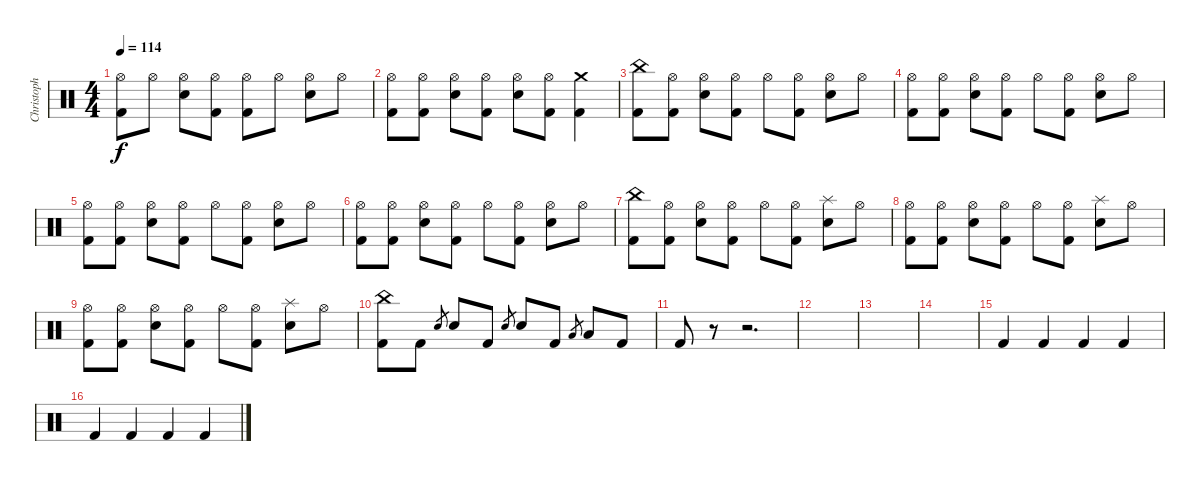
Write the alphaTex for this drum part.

\track ("Christoph" "Christoph") {instrument percussion}
\staff {score}
\articulation defaults
\ts (4 4)
\tempo 114
\clef neutral
\ks c
("Hi-Hat (open)" "Kick (hit) 2").8{dy f} "Hi-Hat (open)".8 ("Hi-Hat (open)" "Electric Snare (hit)").8 ("Hi-Hat (open)" "Kick (hit) 2").8 ("Hi-Hat (open)" "Kick (hit) 2").8 "Hi-Hat (open)".8 ("Hi-Hat (open)" "Electric Snare (hit)").8 "Hi-Hat (open)".8 |
("Hi-Hat (open)" "Kick (hit) 2").8 ("Hi-Hat (open)" "Kick (hit) 2").8 ("Hi-Hat (open)" "Electric Snare (hit)").8 ("Hi-Hat (open)" "Kick (hit) 2").8 ("Hi-Hat (open)" "Electric Snare (hit)").8 ("Hi-Hat (open)" "Kick (hit) 2").8 ("Crash medium (hit)" "Kick (hit) 2").4 |
("China (hit)" "Kick (hit) 2").8 ("Hi-Hat (open)" "Kick (hit) 2").8 ("Hi-Hat (open)" "Electric Snare (hit)").8 ("Hi-Hat (open)" "Kick (hit) 2").8 "Hi-Hat (open)".8 ("Hi-Hat (open)" "Kick (hit) 2").8 ("Hi-Hat (open)" "Electric Snare (hit)").8 "Hi-Hat (open)".8 |
("Hi-Hat (open)" "Kick (hit) 2").8 ("Hi-Hat (open)" "Kick (hit) 2").8 ("Hi-Hat (open)" "Electric Snare (hit)").8 ("Hi-Hat (open)" "Kick (hit) 2").8 "Hi-Hat (open)".8 ("Hi-Hat (open)" "Kick (hit) 2").8 ("Hi-Hat (open)" "Electric Snare (hit)").8 "Hi-Hat (open)".8 |
("Hi-Hat (open)" "Kick (hit) 2").8 ("Hi-Hat (open)" "Kick (hit) 2").8 ("Hi-Hat (open)" "Electric Snare (hit)").8 ("Hi-Hat (open)" "Kick (hit) 2").8 "Hi-Hat (open)".8 ("Hi-Hat (open)" "Kick (hit) 2").8 ("Hi-Hat (open)" "Electric Snare (hit)").8 "Hi-Hat (open)".8 |
("Hi-Hat (open)" "Kick (hit) 2").8 ("Hi-Hat (open)" "Kick (hit) 2").8 ("Hi-Hat (open)" "Electric Snare (hit)").8 ("Hi-Hat (open)" "Kick (hit) 2").8 "Hi-Hat (open)".8 ("Hi-Hat (open)" "Kick (hit) 2").8 ("Hi-Hat (open)" "Electric Snare (hit)").8 "Hi-Hat (open)".8 |
("China (hit)" "Kick (hit) 2").8 ("Hi-Hat (open)" "Kick (hit) 2").8 ("Hi-Hat (open)" "Electric Snare (hit)").8 ("Hi-Hat (open)" "Kick (hit) 2").8 "Hi-Hat (open)".8 ("Hi-Hat (open)" "Kick (hit) 2").8 ("Splash (hit)" "Electric Snare (hit)").8 "Hi-Hat (open)".8 |
("Hi-Hat (open)" "Kick (hit) 2").8 ("Hi-Hat (open)" "Kick (hit) 2").8 ("Hi-Hat (open)" "Electric Snare (hit)").8 ("Hi-Hat (open)" "Kick (hit) 2").8 "Hi-Hat (open)".8 ("Hi-Hat (open)" "Kick (hit) 2").8 ("Splash (hit)" "Electric Snare (hit)").8 "Hi-Hat (open)".8 |
("Hi-Hat (open)" "Kick (hit) 2").8 ("Hi-Hat (open)" "Kick (hit) 2").8 ("Hi-Hat (open)" "Electric Snare (hit)").8 ("Hi-Hat (open)" "Kick (hit) 2").8 "Hi-Hat (open)".8 ("Hi-Hat (open)" "Kick (hit) 2").8 ("Splash (hit)" "Electric Snare (hit)").8 "Hi-Hat (open)".8 |
("China (hit)" "Kick (hit) 2").8 "Kick (hit) 2".8 "Electric Snare (hit)".8{gr} "Electric Snare (hit)".8 "Kick (hit) 2".8 "Electric Snare (hit)".8{gr} "Electric Snare (hit)".8 "Kick (hit) 2".8 "Low Floor Tom (hit)".8{gr} "Low Floor Tom (hit)".8 "Kick (hit) 2".8 |
"Kick (hit) 2".8 r.8 r.2{d} |
|
|
|
"Kick (hit) 2".4 "Kick (hit) 2".4 "Kick (hit) 2".4 "Kick (hit) 2".4 |
"Kick (hit) 2".4 "Kick (hit) 2".4 "Kick (hit) 2".4 "Kick (hit) 2".4
